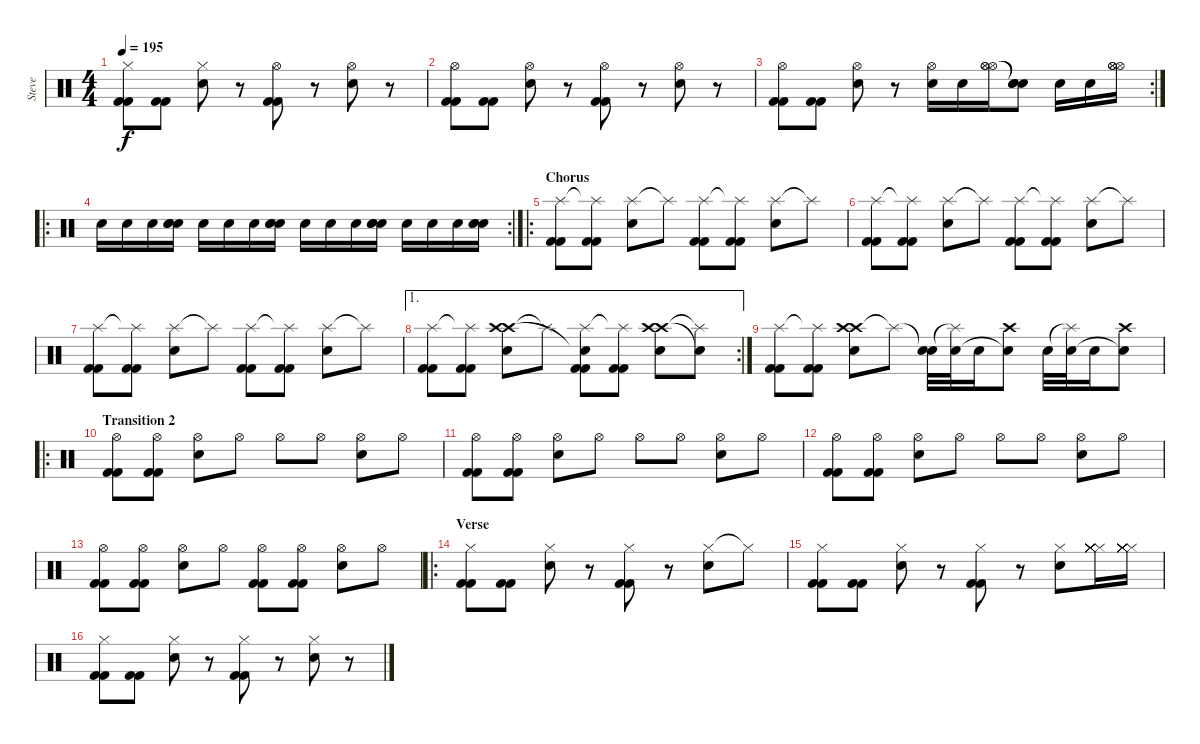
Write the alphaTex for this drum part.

\track ("Steve" "Steve") {instrument percussion}
\staff {score}
\articulation defaults
\ts (4 4)
\tempo 195
\clef neutral
\ks c
("Hi-Hat (closed)" "Kick (hit) 2" "Kick (hit) 2").8{dy f} ("Kick (hit) 2" "Kick (hit) 2").8 ("Hi-Hat (closed)" "Snare (hit) 2").8 r.8 ("Hi-Hat (open)" "Kick (hit) 2" "Kick (hit) 2").8 r.8 ("Hi-Hat (open)" "Snare (hit) 2").8 r.8 |
("Hi-Hat (open)" "Kick (hit) 2" "Kick (hit) 2").8 ("Kick (hit) 2" "Kick (hit) 2").8 ("Hi-Hat (open)" "Snare (hit) 2").8 r.8 ("Hi-Hat (open)" "Kick (hit) 2" "Kick (hit) 2").8 r.8 ("Hi-Hat (open)" "Snare (hit) 2").8 r.8 |
\rc 2
("Hi-Hat (open)" "Kick (hit) 2" "Kick (hit) 2").8 ("Kick (hit) 2" "Kick (hit) 2").8 ("Hi-Hat (open)" "Snare (hit) 2").8 r.8 ("Hi-Hat (open)" "Snare (hit) 2").16 "Snare (hit) 2".16 ("Hi-Hat (open)" "Hi-Hat (open)" "Hi-Hat (open)").16 ("Snare (hit)"{t} "Snare (hit)"{t} "Snare (hit)"{t}).8 "Snare (hit) 2".16 "Snare (hit) 2".16 ("Hi-Hat (open)" "Hi-Hat (open)" "Hi-Hat (open)").16 |
\ro
\rc 2 "Snare (hit) 2".16 "Snare (hit) 2".16 "Snare (hit) 2".16
("Snare (hit) 2" "Snare (hit) 2" "Snare (hit) 2").16 "Snare (hit) 2".16 "Snare (hit) 2".16 "Snare (hit) 2".16 ("Snare (hit) 2" "Snare (hit) 2" "Snare (hit) 2").16 "Snare (hit) 2".16 "Snare (hit) 2".16 "Snare (hit) 2".16 ("Snare (hit) 2" "Snare (hit) 2" "Snare (hit) 2").16 "Snare (hit) 2".16 "Snare (hit) 2".16 "Snare (hit) 2".16 ("Snare (hit) 2" "Snare (hit) 2" "Snare (hit) 2").16 |
\ro
\section ("" "Chorus")
("Splash (hit)" "Kick (hit) 2" "Kick (hit) 2").8 ("Splash (hit)"{t} "Kick (hit) 2" "Kick (hit) 2").8 ("Splash (hit)" "Snare (hit) 2").8 "Splash (hit)"{t}.8 ("Splash (hit)" "Kick (hit) 2" "Kick (hit) 2").8 ("Splash (hit)"{t} "Kick (hit) 2" "Kick (hit) 2").8 ("Splash (hit)" "Snare (hit) 2").8 "Splash (hit)"{t}.8 |
("Splash (hit)" "Kick (hit) 2" "Kick (hit) 2").8 ("Splash (hit)"{t} "Kick (hit) 2" "Kick (hit) 2").8 ("Splash (hit)" "Snare (hit) 2").8 "Splash (hit)"{t}.8 ("Splash (hit)" "Kick (hit) 2" "Kick (hit) 2").8 ("Splash (hit)"{t} "Kick (hit) 2" "Kick (hit) 2").8 ("Splash (hit)" "Snare (hit) 2").8 "Splash (hit)"{t}.8 |
("Splash (hit)" "Kick (hit) 2" "Kick (hit) 2").8 ("Splash (hit)"{t} "Kick (hit) 2" "Kick (hit) 2").8 ("Splash (hit)" "Snare (hit) 2").8 "Splash (hit)"{t}.8 ("Splash (hit)" "Kick (hit) 2" "Kick (hit) 2").8 ("Splash (hit)"{t} "Kick (hit) 2" "Kick (hit) 2").8 ("Splash (hit)" "Snare (hit) 2").8 "Splash (hit)"{t}.8 |
\ae 1
\rc 2
("Splash (hit)" "Kick (hit) 2" "Kick (hit) 2").8 ("Splash (hit)"{t} "Kick (hit) 2" "Kick (hit) 2").8 ("Crash high (hit)" "Crash high (hit)" "Snare (hit) 2").8 "Splash (hit)"{t}.8 ("Splash (hit)" "Snare (hit)"{t} "Kick (hit) 2" "Kick (hit) 2").8 ("Splash (hit)"{t} "Kick (hit) 2" "Kick (hit) 2").8 ("Crash high (hit)" "Crash high (hit)" "Snare (hit) 2").8 ("Splash (hit)"{t} "Snare (hit)"{t}).8 |
("Splash (hit)" "Kick (hit) 2" "Kick (hit) 2").8 ("Splash (hit)"{t} "Kick (hit) 2" "Kick (hit) 2").8 ("Crash high (hit)" "Crash high (hit)" "Snare (hit) 2").8 "Splash (hit)"{t}.8 ("Snare (hit)"{t} "Snare (hit) 2").32 ("Splash (hit)"{t} "Snare (hit) 2").32 "Snare (hit) 2".16 ("Crash high (hit)" "Snare (hit)"{t}).8 "Snare (hit) 2".32 ("Splash (hit)"{t} "Snare (hit) 2").32 "Snare (hit) 2".16 ("Crash high (hit)" "Snare (hit)"{t}).8 |
\ro
\section ("" "Transition 2")
("Hi-Hat (open)" "Kick (hit) 2" "Kick (hit) 2").8 ("Hi-Hat (open)" "Kick (hit) 2" "Kick (hit) 2").8 ("Hi-Hat (open)" "Snare (hit) 2").8 "Hi-Hat (open)".8 "Hi-Hat (open)".8 "Hi-Hat (open)".8 ("Hi-Hat (open)" "Snare (hit) 2").8 "Hi-Hat (open)".8 |
("Hi-Hat (open)" "Kick (hit) 2" "Kick (hit) 2").8 ("Hi-Hat (open)" "Kick (hit) 2" "Kick (hit) 2").8 ("Hi-Hat (open)" "Snare (hit) 2").8 "Hi-Hat (open)".8 "Hi-Hat (open)".8 "Hi-Hat (open)".8 ("Hi-Hat (open)" "Snare (hit) 2").8 "Hi-Hat (open)".8 |
("Hi-Hat (open)" "Kick (hit) 2" "Kick (hit) 2").8 ("Hi-Hat (open)" "Kick (hit) 2" "Kick (hit) 2").8 ("Hi-Hat (open)" "Snare (hit) 2").8 "Hi-Hat (open)".8 "Hi-Hat (open)".8 "Hi-Hat (open)".8 ("Hi-Hat (open)" "Snare (hit) 2").8 "Hi-Hat (open)".8 |
("Hi-Hat (open)" "Kick (hit) 2" "Kick (hit) 2").8 ("Hi-Hat (open)" "Kick (hit) 2" "Kick (hit) 2").8 ("Hi-Hat (open)" "Snare (hit) 2").8 "Hi-Hat (open)".8 ("Hi-Hat (open)" "Kick (hit) 2" "Kick (hit) 2").8 ("Hi-Hat (open)" "Kick (hit) 2" "Kick (hit) 2").8 ("Hi-Hat (open)" "Snare (hit) 2").8 "Hi-Hat (open)".8 |
\ro
\section ("" "Verse")
("Hi-Hat (closed)" "Kick (hit) 2" "Kick (hit) 2").8 ("Kick (hit) 2" "Kick (hit) 2").8 ("Hi-Hat (closed)" "Snare (hit) 2").8 r.8 ("Hi-Hat (closed)" "Kick (hit) 2" "Kick (hit) 2").8 r.8 ("Hi-Hat (closed)" "Snare (hit) 2").8 "Hi-Hat (closed)"{t}.8 |
("Hi-Hat (closed)" "Kick (hit) 2" "Kick (hit) 2").8 ("Kick (hit) 2" "Kick (hit) 2").8 ("Hi-Hat (closed)" "Snare (hit) 2").8 r.8 ("Hi-Hat (closed)" "Kick (hit) 2" "Kick (hit) 2").8 r.8 ("Hi-Hat (closed)" "Snare (hit) 2").8 ("Hi-Hat (closed)" "Hi-Hat (closed)" "Hi-Hat (closed)" "Hi-Hat (closed)" "Hi-Hat (closed)" "Hi-Hat (closed)").16 ("Hi-Hat (closed)" "Hi-Hat (closed)" "Hi-Hat (closed)" "Hi-Hat (closed)" "Hi-Hat (closed)" "Hi-Hat (closed)").16 |
("Hi-Hat (closed)" "Kick (hit) 2" "Kick (hit) 2").8 ("Kick (hit) 2" "Kick (hit) 2").8 ("Hi-Hat (closed)" "Snare (hit) 2").8 r.8 ("Hi-Hat (closed)" "Kick (hit) 2" "Kick (hit) 2").8 r.8 ("Hi-Hat (closed)" "Snare (hit) 2").8 r.8
